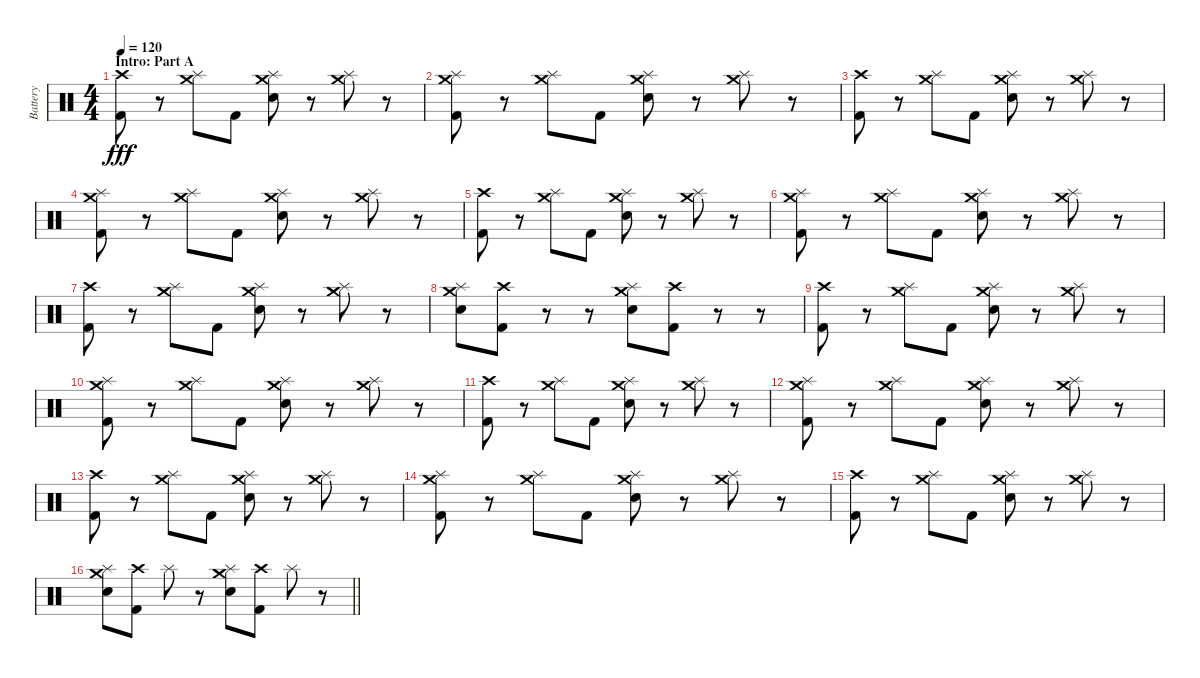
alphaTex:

\track ("Battery" "Battery") {instrument percussion}
\staff {score}
\articulation defaults
\ts (4 4)
\section ("" "Intro: Part A")
\tempo 120
\clef neutral
\ks c
("Crash high (hit)" "Kick (hit) 2").8{dy fff} r.8 ("Crash medium (hit)" "Splash (hit)").8 "Kick (hit) 2".8 ("Crash medium (hit)" "Splash (hit)" "Electric Snare (hit)").8 r.8 ("Crash medium (hit)" "Splash (hit)").8 r.8 |
("Crash medium (hit)" "Splash (hit)" "Kick (hit) 2").8 r.8 ("Crash medium (hit)" "Splash (hit)").8 "Kick (hit) 2".8 ("Crash medium (hit)" "Splash (hit)" "Electric Snare (hit)").8 r.8 ("Crash medium (hit)" "Splash (hit)").8 r.8 |
("Crash high (hit)" "Kick (hit) 2").8 r.8 ("Crash medium (hit)" "Splash (hit)").8 "Kick (hit) 2".8 ("Crash medium (hit)" "Splash (hit)" "Electric Snare (hit)").8 r.8 ("Crash medium (hit)" "Splash (hit)").8 r.8 |
("Crash medium (hit)" "Splash (hit)" "Kick (hit) 2").8 r.8 ("Crash medium (hit)" "Splash (hit)").8 "Kick (hit) 2".8 ("Crash medium (hit)" "Splash (hit)" "Electric Snare (hit)").8 r.8 ("Crash medium (hit)" "Splash (hit)").8 r.8 |
("Crash high (hit)" "Kick (hit) 2").8 r.8 ("Crash medium (hit)" "Splash (hit)").8 "Kick (hit) 2".8 ("Crash medium (hit)" "Splash (hit)" "Electric Snare (hit)").8 r.8 ("Crash medium (hit)" "Splash (hit)").8 r.8 |
("Crash medium (hit)" "Splash (hit)" "Kick (hit) 2").8 r.8 ("Crash medium (hit)" "Splash (hit)").8 "Kick (hit) 2".8 ("Crash medium (hit)" "Splash (hit)" "Electric Snare (hit)").8 r.8 ("Crash medium (hit)" "Splash (hit)").8 r.8 |
("Crash high (hit)" "Kick (hit) 2").8 r.8 ("Crash medium (hit)" "Splash (hit)").8 "Kick (hit) 2".8 ("Crash medium (hit)" "Splash (hit)" "Electric Snare (hit)").8 r.8 ("Crash medium (hit)" "Splash (hit)").8 r.8 |
("Crash medium (hit)" "Splash (hit)" "Electric Snare (hit)").8 ("Crash high (hit)" "Kick (hit) 2").8 r.8 r.8 ("Crash medium (hit)" "Splash (hit)" "Electric Snare (hit)").8 ("Crash high (hit)" "Kick (hit) 2").8 r.8 r.8 |
("Crash high (hit)" "Kick (hit) 2").8 r.8 ("Crash medium (hit)" "Splash (hit)").8 "Kick (hit) 2".8 ("Crash medium (hit)" "Splash (hit)" "Electric Snare (hit)").8 r.8 ("Crash medium (hit)" "Splash (hit)").8 r.8 |
("Crash medium (hit)" "Splash (hit)" "Kick (hit) 2").8 r.8 ("Crash medium (hit)" "Splash (hit)").8 "Kick (hit) 2".8 ("Crash medium (hit)" "Splash (hit)" "Electric Snare (hit)").8 r.8 ("Crash medium (hit)" "Splash (hit)").8 r.8 |
("Crash high (hit)" "Kick (hit) 2").8 r.8 ("Crash medium (hit)" "Splash (hit)").8 "Kick (hit) 2".8 ("Crash medium (hit)" "Splash (hit)" "Electric Snare (hit)").8 r.8 ("Crash medium (hit)" "Splash (hit)").8 r.8 |
("Crash medium (hit)" "Splash (hit)" "Kick (hit) 2").8 r.8 ("Crash medium (hit)" "Splash (hit)").8 "Kick (hit) 2".8 ("Crash medium (hit)" "Splash (hit)" "Electric Snare (hit)").8 r.8 ("Crash medium (hit)" "Splash (hit)").8 r.8 |
("Crash high (hit)" "Kick (hit) 2").8 r.8 ("Crash medium (hit)" "Splash (hit)").8 "Kick (hit) 2".8 ("Crash medium (hit)" "Splash (hit)" "Electric Snare (hit)").8 r.8 ("Crash medium (hit)" "Splash (hit)").8 r.8 |
("Crash medium (hit)" "Splash (hit)" "Kick (hit) 2").8 r.8 ("Crash medium (hit)" "Splash (hit)").8 "Kick (hit) 2".8 ("Crash medium (hit)" "Splash (hit)" "Electric Snare (hit)").8 r.8 ("Crash medium (hit)" "Splash (hit)").8 r.8 |
("Crash high (hit)" "Kick (hit) 2").8 r.8 ("Crash medium (hit)" "Splash (hit)").8 "Kick (hit) 2".8 ("Crash medium (hit)" "Splash (hit)" "Electric Snare (hit)").8 r.8 ("Crash medium (hit)" "Splash (hit)").8 r.8 |
\barLineRight lightlight
("Crash medium (hit)" "Splash (hit)" "Electric Snare (hit)").8 ("Crash high (hit)" "Kick (hit) 2").8 "Splash (hit)".8 r.8 ("Crash medium (hit)" "Splash (hit)" "Electric Snare (hit)").8 ("Crash high (hit)" "Kick (hit) 2").8 "Splash (hit)".8 r.8
